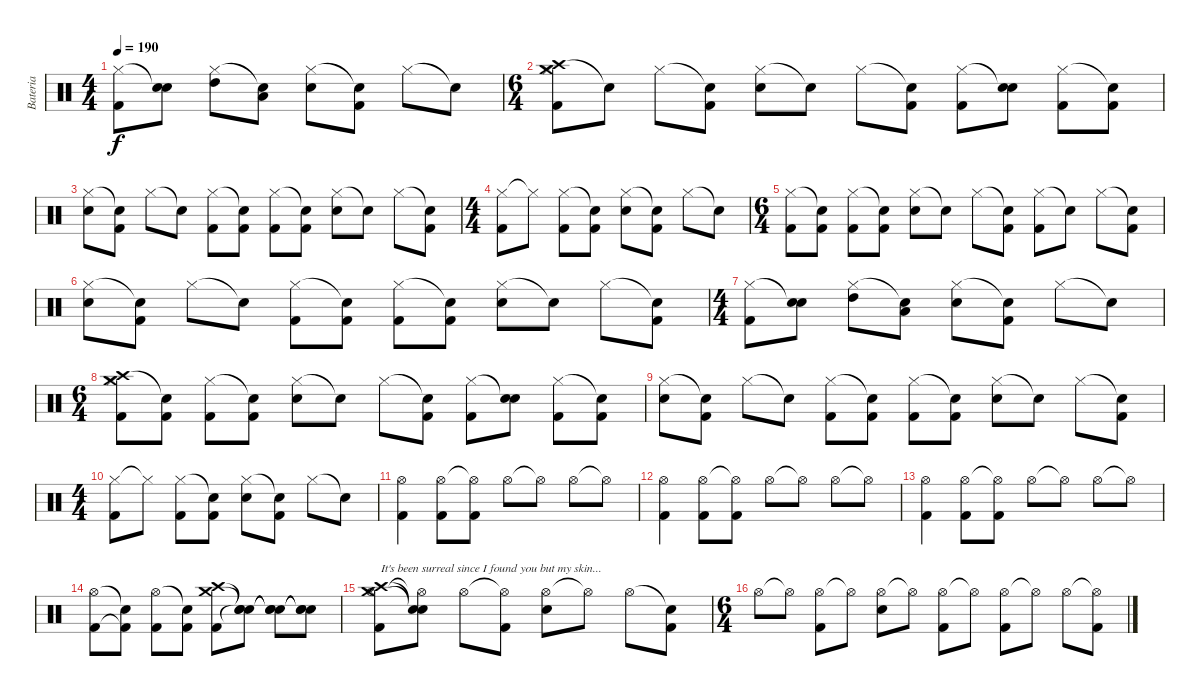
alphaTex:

\track ("Bateria" "Bateria") {instrument percussion}
\staff {score}
\articulation defaults
\ts (4 4)
\tempo 190
\clef neutral
\ks c
("Hi-Hat (closed)" "Kick (hit) 2").8{dy f} ("Snare (hit)"{t} "Electric Snare (hit)").8 ("Hi-Hat (closed)" "High Tom (hit)").8 ("Snare (hit)"{t} "Low Tom (hit)").8 ("Hi-Hat (closed)" "Electric Snare (hit)").8 ("Snare (hit)"{t} "Kick (hit) 2").8 "Hi-Hat (closed)".8 "Snare (hit)"{t}.8 |
\ts (6 4)
("Crash high (hit)" "Crash medium (hit)" "Hi-Hat (closed)" "Kick (hit) 2").8 "Snare (hit)"{t}.8 "Hi-Hat (closed)".8 ("Snare (hit)"{t} "Kick (hit) 2").8 ("Hi-Hat (closed)" "Electric Snare (hit)").8 "Snare (hit)"{t}.8 "Hi-Hat (closed)".8 ("Snare (hit)"{t} "Kick (hit) 2").8 ("Hi-Hat (closed)" "Kick (hit) 2").8 ("Snare (hit)"{t} "Electric Snare (hit)").8 ("Hi-Hat (closed)" "Kick (hit) 2").8 ("Snare (hit)"{t} "Kick (hit) 2").8 |
("Hi-Hat (closed)" "Electric Snare (hit)").8 ("Snare (hit)"{t} "Kick (hit) 2").8 "Hi-Hat (closed)".8 "Snare (hit)"{t}.8 ("Hi-Hat (closed)" "Kick (hit) 2").8 ("Snare (hit)"{t} "Kick (hit) 2").8 ("Hi-Hat (closed)" "Kick (hit) 2").8 ("Snare (hit)"{t} "Kick (hit) 2").8 ("Hi-Hat (closed)" "Electric Snare (hit)").8 "Snare (hit)"{t}.8 "Hi-Hat (closed)".8 ("Snare (hit)"{t} "Kick (hit) 2").8 |
\ts (4 4)
("Hi-Hat (closed)" "Kick (hit) 2").8 "Hi-Hat (closed)"{t}.8 ("Hi-Hat (closed)" "Kick (hit) 2").8 ("Snare (hit)"{t} "Kick (hit) 2").8 ("Hi-Hat (closed)" "Electric Snare (hit)").8 ("Snare (hit)"{t} "Kick (hit) 2").8 "Hi-Hat (closed)".8 "Snare (hit)"{t}.8 |
\ts (6 4)
("Hi-Hat (closed)" "Kick (hit) 2").8 ("Snare (hit)"{t} "Kick (hit) 2").8 ("Hi-Hat (closed)" "Kick (hit) 2").8 ("Snare (hit)"{t} "Kick (hit) 2").8 ("Hi-Hat (closed)" "Electric Snare (hit)").8 "Snare (hit)"{t}.8 "Hi-Hat (closed)".8 ("Snare (hit)"{t} "Kick (hit) 2").8 ("Hi-Hat (closed)" "Kick (hit) 2").8 "Snare (hit)"{t}.8 "Hi-Hat (closed)".8 ("Snare (hit)"{t} "Kick (hit) 2").8 |
("Hi-Hat (closed)" "Electric Snare (hit)").8 ("Snare (hit)"{t} "Kick (hit) 2").8 "Hi-Hat (closed)".8 "Snare (hit)"{t}.8 ("Hi-Hat (closed)" "Kick (hit) 2").8 ("Snare (hit)"{t} "Kick (hit) 2").8 ("Hi-Hat (closed)" "Kick (hit) 2").8 ("Snare (hit)"{t} "Kick (hit) 2").8 ("Hi-Hat (closed)" "Electric Snare (hit)").8 "Snare (hit)"{t}.8 "Hi-Hat (closed)".8 ("Snare (hit)"{t} "Kick (hit) 2").8 |
\ts (4 4)
("Hi-Hat (closed)" "Kick (hit) 2").8 ("Snare (hit)"{t} "Electric Snare (hit)").8 ("Hi-Hat (closed)" "High Tom (hit)").8 ("Snare (hit)"{t} "Low Tom (hit)").8 ("Hi-Hat (closed)" "Electric Snare (hit)").8 ("Snare (hit)"{t} "Kick (hit) 2").8 "Hi-Hat (closed)".8 "Snare (hit)"{t}.8 |
\ts (6 4)
("Crash high (hit)" "Crash medium (hit)" "Hi-Hat (closed)" "Kick (hit) 2").8 ("Snare (hit)"{t} "Kick (hit) 2").8 ("Hi-Hat (closed)" "Kick (hit) 2").8 ("Snare (hit)"{t} "Kick (hit) 2").8 ("Hi-Hat (closed)" "Electric Snare (hit)").8 "Snare (hit)"{t}.8 "Hi-Hat (closed)".8 ("Snare (hit)"{t} "Kick (hit) 2").8 ("Hi-Hat (closed)" "Kick (hit) 2").8 ("Snare (hit)"{t} "Electric Snare (hit)").8 ("Hi-Hat (closed)" "Kick (hit) 2").8 ("Snare (hit)"{t} "Kick (hit) 2").8 |
("Hi-Hat (closed)" "Electric Snare (hit)").8 ("Snare (hit)"{t} "Kick (hit) 2").8 "Hi-Hat (closed)".8 "Snare (hit)"{t}.8 ("Hi-Hat (closed)" "Kick (hit) 2").8 ("Snare (hit)"{t} "Kick (hit) 2").8 ("Hi-Hat (closed)" "Kick (hit) 2").8 ("Snare (hit)"{t} "Kick (hit) 2").8 ("Hi-Hat (closed)" "Electric Snare (hit)").8 "Snare (hit)"{t}.8 "Hi-Hat (closed)".8 ("Snare (hit)"{t} "Kick (hit) 2").8 |
\ts (4 4)
("Hi-Hat (closed)" "Kick (hit) 2").8 "Hi-Hat (closed)"{t}.8 ("Hi-Hat (closed)" "Kick (hit) 2").8 ("Snare (hit)"{t} "Kick (hit) 2").8 ("Hi-Hat (closed)" "Electric Snare (hit)").8 ("Snare (hit)"{t} "Kick (hit) 2").8 "Hi-Hat (closed)".8 "Snare (hit)"{t}.8 |
("Hi-Hat (open)" "Kick (hit) 2").4 ("Hi-Hat (open)" "Kick (hit) 2").8 ("Hi-Hat (open)"{t} "Kick (hit) 2").8 "Hi-Hat (open)".8 "Hi-Hat (open)"{t}.8 "Hi-Hat (open)".8 "Hi-Hat (open)"{t}.8 |
("Hi-Hat (open)" "Kick (hit) 2").4 ("Hi-Hat (open)" "Kick (hit) 2").8 ("Hi-Hat (open)"{t} "Kick (hit) 2").8 "Hi-Hat (open)".8 "Hi-Hat (open)"{t}.8 "Hi-Hat (open)".8 "Hi-Hat (open)"{t}.8 |
("Hi-Hat (open)" "Kick (hit) 2").4 ("Hi-Hat (open)" "Kick (hit) 2").8 ("Hi-Hat (open)"{t} "Kick (hit) 2").8 "Hi-Hat (open)".8 "Hi-Hat (open)"{t}.8 "Hi-Hat (open)".8 "Hi-Hat (open)"{t}.8 |
("Hi-Hat (open)" "Kick (hit) 2").8 ("Snare (hit)"{t} "Kick (hit) 2"{t}).8 ("Hi-Hat (open)" "Kick (hit) 2").8 ("Snare (hit)"{t} "Kick (hit) 2").8 ("Crash high (hit)" "Crash medium (hit)" "Kick (hit) 2").8 ("Snare (hit)"{t} "Snare (hit)"{t} "Snare (hit)"{t}).8 ("Snare (hit)"{t} "Snare (hit)"{t} "Snare (hit)"{t}).8 ("Snare (hit)"{t} "Snare (hit)"{t} "Snare (hit)"{t}).8 |
("Hi-Hat (open)" "Crash high (hit)" "Crash medium (hit)" "Kick (hit) 2").8{txt "It's been surreal since I found you but my skin..."} ("Snare (hit)"{t} "Snare (hit)"{t} "Hi-Hat (open)"{t}).8 "Hi-Hat (open)".8 ("Hi-Hat (open)"{t} "Kick (hit) 2").8 ("Hi-Hat (open)" "Electric Snare (hit)").8 "Hi-Hat (open)"{t}.8 "Hi-Hat (open)".8 ("Snare (hit)"{t} "Kick (hit) 2").8 |
\ts (6 4)
"Hi-Hat (open)".8 "Hi-Hat (open)"{t}.8 ("Hi-Hat (open)" "Kick (hit) 2").8 "Hi-Hat (open)"{t}.8 ("Hi-Hat (open)" "Electric Snare (hit)").8 "Hi-Hat (open)"{t}.8 ("Hi-Hat (open)" "Kick (hit) 2").8 "Hi-Hat (open)"{t}.8 ("Hi-Hat (open)" "Kick (hit) 2").8 "Hi-Hat (open)"{t}.8 "Hi-Hat (open)".8 ("Hi-Hat (open)"{t} "Kick (hit) 2").8
